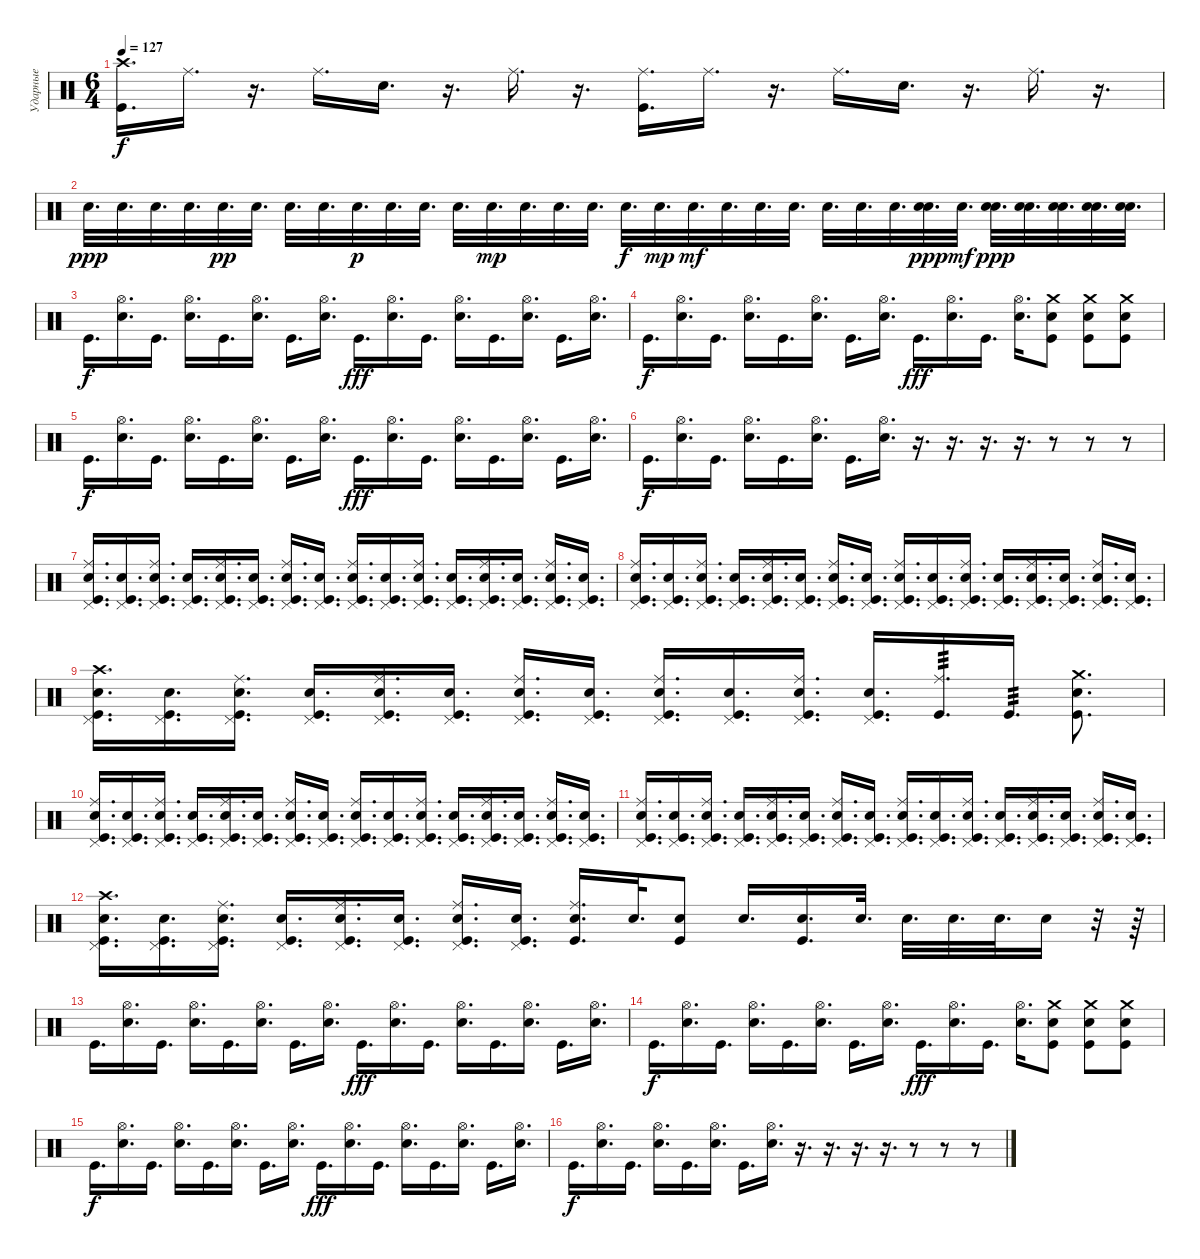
\track ("Ударные" "Ударные") {instrument percussion}
\staff {score}
\articulation defaults
\ts (6 4)
\tempo 127
\clef neutral
\ks c
("Crash high (hit)" "Kick (hit)").16{d dy f} "Ride (middle)".16{d} r.16{d} "Ride (middle)".16{d} "Electric Snare (hit)".16{d} r.16{d} "Ride (middle)".16{d} r.16{d} ("Ride (middle)" "Kick (hit)").16{d} "Ride (middle)".16{d} r.16{d} "Ride (middle)".16{d} "Electric Snare (hit)".16{d} r.16{d} "Ride (middle)".16{d} r.16{d} |
"Electric Snare (hit)".32{d dy ppp} "Electric Snare (hit)".32{d} "Electric Snare (hit)".32{d} "Electric Snare (hit)".32{d} "Electric Snare (hit)".32{d dy pp} "Electric Snare (hit)".32{d} "Electric Snare (hit)".32{d} "Electric Snare (hit)".32{d} "Electric Snare (hit)".32{d dy p} "Electric Snare (hit)".32{d} "Electric Snare (hit)".32{d} "Electric Snare (hit)".32{d} "Electric Snare (hit)".32{d dy mp} "Electric Snare (hit)".32{d} "Electric Snare (hit)".32{d} "Electric Snare (hit)".32{d} "Electric Snare (hit)".32{d dy f} "Electric Snare (hit)".32{d dy mp} "Electric Snare (hit)".32{d dy mf} "Electric Snare (hit)".32{d} "Electric Snare (hit)".32{d} "Electric Snare (hit)".32{d} "Electric Snare (hit)".32{d} "Electric Snare (hit)".32{d} "Electric Snare (hit)".32{d} ("Electric Snare (hit)" "Electric Snare (hit)").32{d dy ppp} "Electric Snare (hit)".32{d dy mf} ("Electric Snare (hit)" "Electric Snare (hit)").32{d dy ppp} ("Electric Snare (hit)" "Electric Snare (hit)").32{d} ("Electric Snare (hit)" "Electric Snare (hit)").32{d} ("Electric Snare (hit)" "Electric Snare (hit)").32{d} ("Electric Snare (hit)" "Electric Snare (hit)").32{d} |
"Kick (hit)".16{d dy f} ("Hi-Hat (open)" "Electric Snare (hit)").16{d} "Kick (hit)".16{d} ("Hi-Hat (open)" "Electric Snare (hit)").16{d} "Kick (hit)".16{d} ("Hi-Hat (open)" "Electric Snare (hit)").16{d} "Kick (hit)".16{d} ("Hi-Hat (open)" "Electric Snare (hit)").16{d} "Kick (hit)".16{d dy fff} ("Hi-Hat (open)" "Electric Snare (hit)").16{d} "Kick (hit)".16{d} ("Hi-Hat (open)" "Electric Snare (hit)").16{d} "Kick (hit)".16{d} ("Hi-Hat (open)" "Electric Snare (hit)").16{d} "Kick (hit)".16{d} ("Hi-Hat (open)" "Electric Snare (hit)").16{d} |
"Kick (hit)".16{d dy f} ("Hi-Hat (open)" "Electric Snare (hit)").16{d} "Kick (hit)".16{d} ("Hi-Hat (open)" "Electric Snare (hit)").16{d} "Kick (hit)".16{d} ("Hi-Hat (open)" "Electric Snare (hit)").16{d} "Kick (hit)".16{d} ("Hi-Hat (open)" "Electric Snare (hit)").16{d} "Kick (hit)".16{d dy fff} ("Hi-Hat (open)" "Electric Snare (hit)").16{d} "Kick (hit)".16{d} ("Hi-Hat (open)" "Electric Snare (hit)").16{d} ("Crash medium (hit)" "Electric Snare (hit)" "Kick (hit)").8 ("Crash medium (hit)" "Electric Snare (hit)" "Kick (hit)").8 ("Crash medium (hit)" "Electric Snare (hit)" "Kick (hit)").8 |
"Kick (hit)".16{d dy f} ("Hi-Hat (open)" "Electric Snare (hit)").16{d} "Kick (hit)".16{d} ("Hi-Hat (open)" "Electric Snare (hit)").16{d} "Kick (hit)".16{d} ("Hi-Hat (open)" "Electric Snare (hit)").16{d} "Kick (hit)".16{d} ("Hi-Hat (open)" "Electric Snare (hit)").16{d} "Kick (hit)".16{d dy fff} ("Hi-Hat (open)" "Electric Snare (hit)").16{d} "Kick (hit)".16{d} ("Hi-Hat (open)" "Electric Snare (hit)").16{d} "Kick (hit)".16{d} ("Hi-Hat (open)" "Electric Snare (hit)").16{d} "Kick (hit)".16{d} ("Hi-Hat (open)" "Electric Snare (hit)").16{d} |
"Kick (hit)".16{d dy f} ("Hi-Hat (open)" "Electric Snare (hit)").16{d} "Kick (hit)".16{d} ("Hi-Hat (open)" "Electric Snare (hit)").16{d} "Kick (hit)".16{d} ("Hi-Hat (open)" "Electric Snare (hit)").16{d} "Kick (hit)".16{d} ("Hi-Hat (open)" "Electric Snare (hit)").16{d} r.16{d} r.16{d} r.16{d} r.16{d} r.8 r.8 r.8 |
("Ride (middle)" "Pedal Hi-Hat (hit)" "Electric Snare (hit)" "Kick (hit)").16{d} ("Pedal Hi-Hat (hit)" "Electric Snare (hit)" "Kick (hit)").16{d} ("Ride (middle)" "Pedal Hi-Hat (hit)" "Electric Snare (hit)" "Kick (hit)").16{d} ("Pedal Hi-Hat (hit)" "Electric Snare (hit)" "Kick (hit)").16{d} ("Ride (middle)" "Pedal Hi-Hat (hit)" "Electric Snare (hit)" "Kick (hit)").16{d} ("Pedal Hi-Hat (hit)" "Electric Snare (hit)" "Kick (hit)").16{d} ("Ride (middle)" "Pedal Hi-Hat (hit)" "Electric Snare (hit)" "Kick (hit)").16{d} ("Pedal Hi-Hat (hit)" "Electric Snare (hit)" "Kick (hit)").16{d} ("Ride (middle)" "Pedal Hi-Hat (hit)" "Electric Snare (hit)" "Kick (hit)").16{d} ("Pedal Hi-Hat (hit)" "Electric Snare (hit)" "Kick (hit)").16{d} ("Ride (middle)" "Pedal Hi-Hat (hit)" "Electric Snare (hit)" "Kick (hit)").16{d} ("Pedal Hi-Hat (hit)" "Electric Snare (hit)" "Kick (hit)").16{d} ("Ride (middle)" "Pedal Hi-Hat (hit)" "Electric Snare (hit)" "Kick (hit)").16{d} ("Pedal Hi-Hat (hit)" "Electric Snare (hit)" "Kick (hit)").16{d} ("Ride (middle)" "Pedal Hi-Hat (hit)" "Electric Snare (hit)" "Kick (hit)").16{d} ("Pedal Hi-Hat (hit)" "Electric Snare (hit)" "Kick (hit)").16{d} |
("Ride (middle)" "Pedal Hi-Hat (hit)" "Electric Snare (hit)" "Kick (hit)").16{d} ("Pedal Hi-Hat (hit)" "Electric Snare (hit)" "Kick (hit)").16{d} ("Ride (middle)" "Pedal Hi-Hat (hit)" "Electric Snare (hit)" "Kick (hit)").16{d} ("Pedal Hi-Hat (hit)" "Electric Snare (hit)" "Kick (hit)").16{d} ("Ride (middle)" "Pedal Hi-Hat (hit)" "Electric Snare (hit)" "Kick (hit)").16{d} ("Pedal Hi-Hat (hit)" "Electric Snare (hit)" "Kick (hit)").16{d} ("Ride (middle)" "Pedal Hi-Hat (hit)" "Electric Snare (hit)" "Kick (hit)").16{d} ("Pedal Hi-Hat (hit)" "Electric Snare (hit)" "Kick (hit)").16{d} ("Ride (middle)" "Pedal Hi-Hat (hit)" "Electric Snare (hit)" "Kick (hit)").16{d} ("Pedal Hi-Hat (hit)" "Electric Snare (hit)" "Kick (hit)").16{d} ("Ride (middle)" "Pedal Hi-Hat (hit)" "Electric Snare (hit)" "Kick (hit)").16{d} ("Pedal Hi-Hat (hit)" "Electric Snare (hit)" "Kick (hit)").16{d} ("Ride (middle)" "Pedal Hi-Hat (hit)" "Electric Snare (hit)" "Kick (hit)").16{d} ("Pedal Hi-Hat (hit)" "Electric Snare (hit)" "Kick (hit)").16{d} ("Ride (middle)" "Pedal Hi-Hat (hit)" "Electric Snare (hit)" "Kick (hit)").16{d} ("Pedal Hi-Hat (hit)" "Electric Snare (hit)" "Kick (hit)").16{d} |
("Crash high (hit)" "Pedal Hi-Hat (hit)" "Electric Snare (hit)" "Kick (hit)").16{d} ("Pedal Hi-Hat (hit)" "Electric Snare (hit)" "Kick (hit)").16{d} ("Ride (middle)" "Pedal Hi-Hat (hit)" "Electric Snare (hit)" "Kick (hit)").16{d} ("Pedal Hi-Hat (hit)" "Electric Snare (hit)" "Kick (hit)").16{d} ("Ride (middle)" "Pedal Hi-Hat (hit)" "Electric Snare (hit)" "Kick (hit)").16{d} ("Pedal Hi-Hat (hit)" "Electric Snare (hit)" "Kick (hit)").16{d} ("Ride (middle)" "Pedal Hi-Hat (hit)" "Electric Snare (hit)" "Kick (hit)").16{d} ("Pedal Hi-Hat (hit)" "Electric Snare (hit)" "Kick (hit)").16{d} ("Ride (middle)" "Pedal Hi-Hat (hit)" "Electric Snare (hit)" "Kick (hit)").16{d} ("Pedal Hi-Hat (hit)" "Electric Snare (hit)" "Kick (hit)").16{d} ("Ride (middle)" "Pedal Hi-Hat (hit)" "Electric Snare (hit)" "Kick (hit)").16{d} ("Pedal Hi-Hat (hit)" "Electric Snare (hit)" "Kick (hit)").16{d} ("Ride (middle)" "Kick (hit)").16{d tp 3} "Kick (hit)".16{d tp 3} ("Crash medium (hit)" "Electric Snare (hit)" "Kick (hit)").8{d} |
("Ride (middle)" "Pedal Hi-Hat (hit)" "Electric Snare (hit)" "Kick (hit)").16{d} ("Pedal Hi-Hat (hit)" "Electric Snare (hit)" "Kick (hit)").16{d} ("Ride (middle)" "Pedal Hi-Hat (hit)" "Electric Snare (hit)" "Kick (hit)").16{d} ("Pedal Hi-Hat (hit)" "Electric Snare (hit)" "Kick (hit)").16{d} ("Ride (middle)" "Pedal Hi-Hat (hit)" "Electric Snare (hit)" "Kick (hit)").16{d} ("Pedal Hi-Hat (hit)" "Electric Snare (hit)" "Kick (hit)").16{d} ("Ride (middle)" "Pedal Hi-Hat (hit)" "Electric Snare (hit)" "Kick (hit)").16{d} ("Pedal Hi-Hat (hit)" "Electric Snare (hit)" "Kick (hit)").16{d} ("Ride (middle)" "Pedal Hi-Hat (hit)" "Electric Snare (hit)" "Kick (hit)").16{d} ("Pedal Hi-Hat (hit)" "Electric Snare (hit)" "Kick (hit)").16{d} ("Ride (middle)" "Pedal Hi-Hat (hit)" "Electric Snare (hit)" "Kick (hit)").16{d} ("Pedal Hi-Hat (hit)" "Electric Snare (hit)" "Kick (hit)").16{d} ("Ride (middle)" "Pedal Hi-Hat (hit)" "Electric Snare (hit)" "Kick (hit)").16{d} ("Pedal Hi-Hat (hit)" "Electric Snare (hit)" "Kick (hit)").16{d} ("Ride (middle)" "Pedal Hi-Hat (hit)" "Electric Snare (hit)" "Kick (hit)").16{d} ("Pedal Hi-Hat (hit)" "Electric Snare (hit)" "Kick (hit)").16{d} |
("Ride (middle)" "Pedal Hi-Hat (hit)" "Electric Snare (hit)" "Kick (hit)").16{d} ("Pedal Hi-Hat (hit)" "Electric Snare (hit)" "Kick (hit)").16{d} ("Ride (middle)" "Pedal Hi-Hat (hit)" "Electric Snare (hit)" "Kick (hit)").16{d} ("Pedal Hi-Hat (hit)" "Electric Snare (hit)" "Kick (hit)").16{d} ("Ride (middle)" "Pedal Hi-Hat (hit)" "Electric Snare (hit)" "Kick (hit)").16{d} ("Pedal Hi-Hat (hit)" "Electric Snare (hit)" "Kick (hit)").16{d} ("Ride (middle)" "Pedal Hi-Hat (hit)" "Electric Snare (hit)" "Kick (hit)").16{d} ("Pedal Hi-Hat (hit)" "Electric Snare (hit)" "Kick (hit)").16{d} ("Ride (middle)" "Pedal Hi-Hat (hit)" "Electric Snare (hit)" "Kick (hit)").16{d} ("Pedal Hi-Hat (hit)" "Electric Snare (hit)" "Kick (hit)").16{d} ("Ride (middle)" "Pedal Hi-Hat (hit)" "Electric Snare (hit)" "Kick (hit)").16{d} ("Pedal Hi-Hat (hit)" "Electric Snare (hit)" "Kick (hit)").16{d} ("Ride (middle)" "Pedal Hi-Hat (hit)" "Electric Snare (hit)" "Kick (hit)").16{d} ("Pedal Hi-Hat (hit)" "Electric Snare (hit)" "Kick (hit)").16{d} ("Ride (middle)" "Pedal Hi-Hat (hit)" "Electric Snare (hit)" "Kick (hit)").16{d} ("Pedal Hi-Hat (hit)" "Electric Snare (hit)" "Kick (hit)").16{d} |
("Crash high (hit)" "Pedal Hi-Hat (hit)" "Electric Snare (hit)" "Kick (hit)").16{d} ("Pedal Hi-Hat (hit)" "Electric Snare (hit)" "Kick (hit)").16{d} ("Ride (middle)" "Pedal Hi-Hat (hit)" "Electric Snare (hit)" "Kick (hit)").16{d} ("Pedal Hi-Hat (hit)" "Electric Snare (hit)" "Kick (hit)").16{d} ("Ride (middle)" "Pedal Hi-Hat (hit)" "Electric Snare (hit)" "Kick (hit)").16{d} ("Pedal Hi-Hat (hit)" "Electric Snare (hit)" "Kick (hit)").16{d} ("Ride (middle)" "Pedal Hi-Hat (hit)" "Electric Snare (hit)" "Kick (hit)").16{d} ("Pedal Hi-Hat (hit)" "Electric Snare (hit)" "Kick (hit)").16{d} ("Ride (middle)" "Electric Snare (hit)" "Kick (hit)").16{d} "Electric Snare (hit)".32{d} ("Electric Snare (hit)" "Kick (hit)").8 "Electric Snare (hit)".16{d} ("Electric Snare (hit)" "Kick (hit)").16{d} "Electric Snare (hit)".32{d} "Electric Snare (hit)".32{d} "Electric Snare (hit)".32{d} "Electric Snare (hit)".32{d} "Electric Snare (hit)".16 r.32 r.64 |
"Kick (hit)".16{d} ("Hi-Hat (open)" "Electric Snare (hit)").16{d} "Kick (hit)".16{d} ("Hi-Hat (open)" "Electric Snare (hit)").16{d} "Kick (hit)".16{d} ("Hi-Hat (open)" "Electric Snare (hit)").16{d} "Kick (hit)".16{d} ("Hi-Hat (open)" "Electric Snare (hit)").16{d} "Kick (hit)".16{d dy fff} ("Hi-Hat (open)" "Electric Snare (hit)").16{d} "Kick (hit)".16{d} ("Hi-Hat (open)" "Electric Snare (hit)").16{d} "Kick (hit)".16{d} ("Hi-Hat (open)" "Electric Snare (hit)").16{d} "Kick (hit)".16{d} ("Hi-Hat (open)" "Electric Snare (hit)").16{d} |
"Kick (hit)".16{d dy f} ("Hi-Hat (open)" "Electric Snare (hit)").16{d} "Kick (hit)".16{d} ("Hi-Hat (open)" "Electric Snare (hit)").16{d} "Kick (hit)".16{d} ("Hi-Hat (open)" "Electric Snare (hit)").16{d} "Kick (hit)".16{d} ("Hi-Hat (open)" "Electric Snare (hit)").16{d} "Kick (hit)".16{d dy fff} ("Hi-Hat (open)" "Electric Snare (hit)").16{d} "Kick (hit)".16{d} ("Hi-Hat (open)" "Electric Snare (hit)").16{d} ("Crash medium (hit)" "Electric Snare (hit)" "Kick (hit)").8 ("Crash medium (hit)" "Electric Snare (hit)" "Kick (hit)").8 ("Crash medium (hit)" "Electric Snare (hit)" "Kick (hit)").8 |
"Kick (hit)".16{d dy f} ("Hi-Hat (open)" "Electric Snare (hit)").16{d} "Kick (hit)".16{d} ("Hi-Hat (open)" "Electric Snare (hit)").16{d} "Kick (hit)".16{d} ("Hi-Hat (open)" "Electric Snare (hit)").16{d} "Kick (hit)".16{d} ("Hi-Hat (open)" "Electric Snare (hit)").16{d} "Kick (hit)".16{d dy fff} ("Hi-Hat (open)" "Electric Snare (hit)").16{d} "Kick (hit)".16{d} ("Hi-Hat (open)" "Electric Snare (hit)").16{d} "Kick (hit)".16{d} ("Hi-Hat (open)" "Electric Snare (hit)").16{d} "Kick (hit)".16{d} ("Hi-Hat (open)" "Electric Snare (hit)").16{d} |
"Kick (hit)".16{d dy f} ("Hi-Hat (open)" "Electric Snare (hit)").16{d} "Kick (hit)".16{d} ("Hi-Hat (open)" "Electric Snare (hit)").16{d} "Kick (hit)".16{d} ("Hi-Hat (open)" "Electric Snare (hit)").16{d} "Kick (hit)".16{d} ("Hi-Hat (open)" "Electric Snare (hit)").16{d} r.16{d} r.16{d} r.16{d} r.16{d} r.8 r.8 r.8
